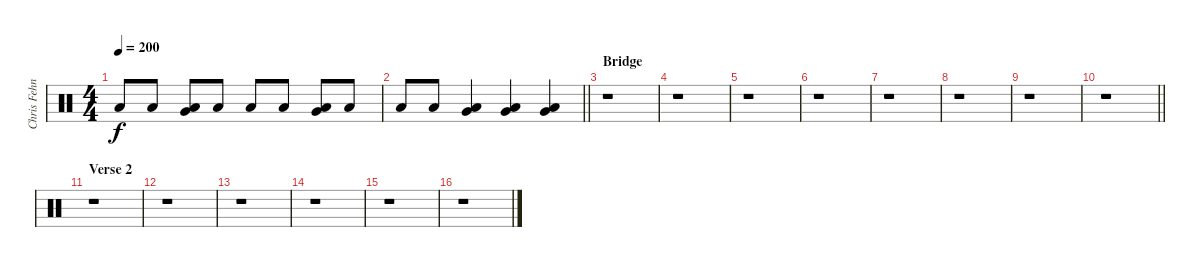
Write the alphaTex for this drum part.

\track ("Chris Fehn" "Chris Fehn") {instrument percussion}
\staff {score}
\articulation defaults
\ts (4 4)
\tempo 200
\clef neutral
\ks c "Low Floor Tom (hit)".8{dy f} "Low Floor Tom (hit)".8
("Very Low Tom (hit)" "Low Floor Tom (hit)").8 "Low Floor Tom (hit)".8 "Low Floor Tom (hit)".8 "Low Floor Tom (hit)".8 ("Very Low Tom (hit)" "Low Floor Tom (hit)").8 "Low Floor Tom (hit)".8 |
\barLineRight lightlight "Low Floor Tom (hit)".8 "Low Floor Tom (hit)".8
("Very Low Tom (hit)" "Low Floor Tom (hit)").4 ("Very Low Tom (hit)" "Low Floor Tom (hit)").4 ("Very Low Tom (hit)" "Low Floor Tom (hit)").4 |
\section ("" "Bridge")
r.1 |
r.1 |
r.1 |
r.1 |
r.1 |
r.1 |
r.1 |
\barLineRight lightlight
r.1 |
\section ("" "Verse 2")
r.1 |
r.1 |
r.1 |
r.1 |
r.1 |
r.1
